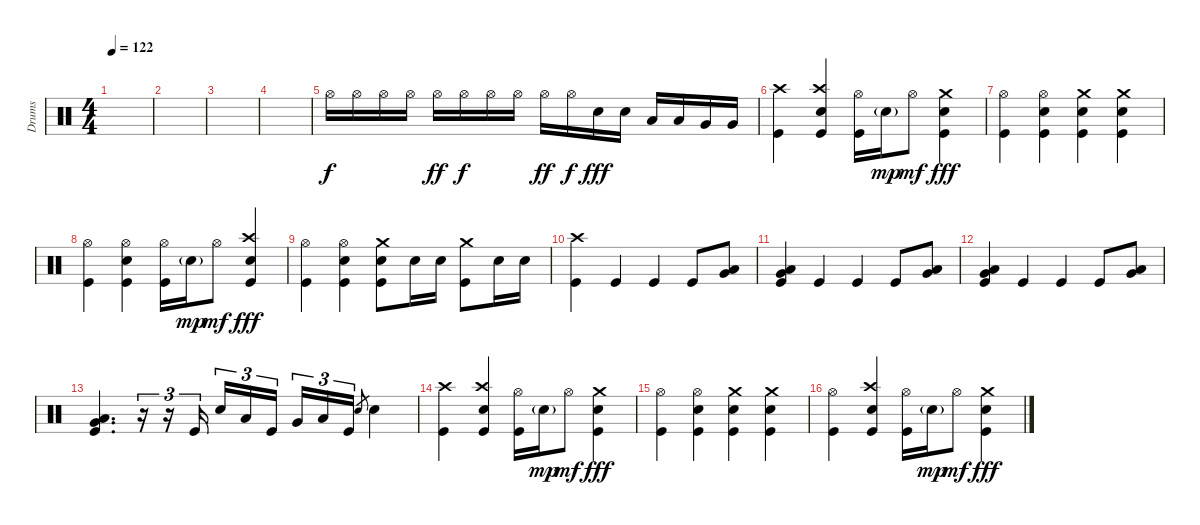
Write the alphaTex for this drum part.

\track ("Drums" "Drums") {instrument percussion}
\staff {score}
\articulation defaults
\ts (4 4)
\tempo 122
\clef neutral
\ks c
|
|
|
|
"Hi-Hat (open)".16 "Hi-Hat (open)".16{dy f} "Hi-Hat (open)".16 "Hi-Hat (open)".16 "Hi-Hat (open)".16{dy ff} "Hi-Hat (open)".16{dy f} "Hi-Hat (open)".16 "Hi-Hat (open)".16 "Hi-Hat (open)".16{dy ff} "Hi-Hat (open)".16{dy f} "Snare (hit) 2".16{dy fff} "Snare (hit) 2".16 "Low Tom (hit)".16 "Low Tom (hit)".16 "Very Low Tom (hit)".16 "Very Low Tom (hit)".16 |
("Crash high (hit)" "Kick (hit)").4 ("Crash high (hit)" "Snare (hit) 2" "Kick (hit)").4 ("Hi-Hat (open)" "Kick (hit)").16 "Snare (hit) 2"{g}.16{dy mp} "Hi-Hat (open)".8{dy mf} ("Crash medium (hit)" "Snare (hit) 2" "Kick (hit)").4{dy fff} |
("Hi-Hat (open)" "Kick (hit)").4 ("Hi-Hat (open)" "Snare (hit) 2" "Kick (hit)").4 ("Crash medium (hit)" "Snare (hit) 2" "Kick (hit)").4 ("Crash medium (hit)" "Snare (hit) 2" "Kick (hit)").4 |
("Hi-Hat (open)" "Kick (hit)").4 ("Hi-Hat (open)" "Snare (hit) 2" "Kick (hit)").4 ("Hi-Hat (open)" "Kick (hit)").16 "Snare (hit) 2"{g}.16{dy mp} "Hi-Hat (open)".8{dy mf} ("Crash high (hit)" "Snare (hit) 2" "Kick (hit)").4{dy fff} |
("Hi-Hat (open)" "Kick (hit)").4 ("Hi-Hat (open)" "Snare (hit) 2" "Kick (hit)").4 ("Crash medium (hit)" "Snare (hit) 2" "Kick (hit)").8 "Snare (hit) 2".16 "Snare (hit) 2".16 ("Crash medium (hit)" "Kick (hit)").8 "Snare (hit) 2".16 "Snare (hit) 2".16 |
("Crash high (hit)" "Kick (hit)").4 "Kick (hit)".4 "Kick (hit)".4 "Kick (hit)".8 ("Low Tom (hit)" "Very Low Tom (hit)").8 |
("Low Tom (hit)" "Very Low Tom (hit)" "Kick (hit)").4 "Kick (hit)".4 "Kick (hit)".4 "Kick (hit)".8 ("Low Tom (hit)" "Very Low Tom (hit)").8 |
("Low Tom (hit)" "Very Low Tom (hit)" "Kick (hit)").4 "Kick (hit)".4 "Kick (hit)".4 "Kick (hit)".8 ("Low Tom (hit)" "Very Low Tom (hit)").8 |
("Low Tom (hit)" "Very Low Tom (hit)" "Kick (hit)").4{d} r.16{tu (3 2)} r.16{tu (3 2)} "Kick (hit)".16{tu (3 2)} "Snare (hit) 2".16{tu (3 2)} "Low Tom (hit)".16{tu (3 2)} "Kick (hit)".16{tu (3 2)} "Very Low Tom (hit)".16{tu (3 2)} "Low Tom (hit)".16{tu (3 2)} "Kick (hit)".16{tu (3 2)} "Snare (hit) 2".8{gr} "Snare (hit) 2".4 |
("Crash high (hit)" "Kick (hit)").4 ("Crash high (hit)" "Snare (hit) 2" "Kick (hit)").4 ("Hi-Hat (open)" "Kick (hit)").16 "Snare (hit) 2"{g}.16{dy mp} "Hi-Hat (open)".8{dy mf} ("Crash medium (hit)" "Snare (hit) 2" "Kick (hit)").4{dy fff} |
("Hi-Hat (open)" "Kick (hit)").4 ("Hi-Hat (open)" "Snare (hit) 2" "Kick (hit)").4 ("Crash medium (hit)" "Snare (hit) 2" "Kick (hit)").4 ("Crash medium (hit)" "Snare (hit) 2" "Kick (hit)").4 |
("Hi-Hat (open)" "Kick (hit)").4 ("Crash high (hit)" "Snare (hit) 2" "Kick (hit)").4 ("Hi-Hat (open)" "Kick (hit)").16 "Snare (hit) 2"{g}.16{dy mp} "Hi-Hat (open)".8{dy mf} ("Crash medium (hit)" "Snare (hit) 2" "Kick (hit)").4{dy fff}
